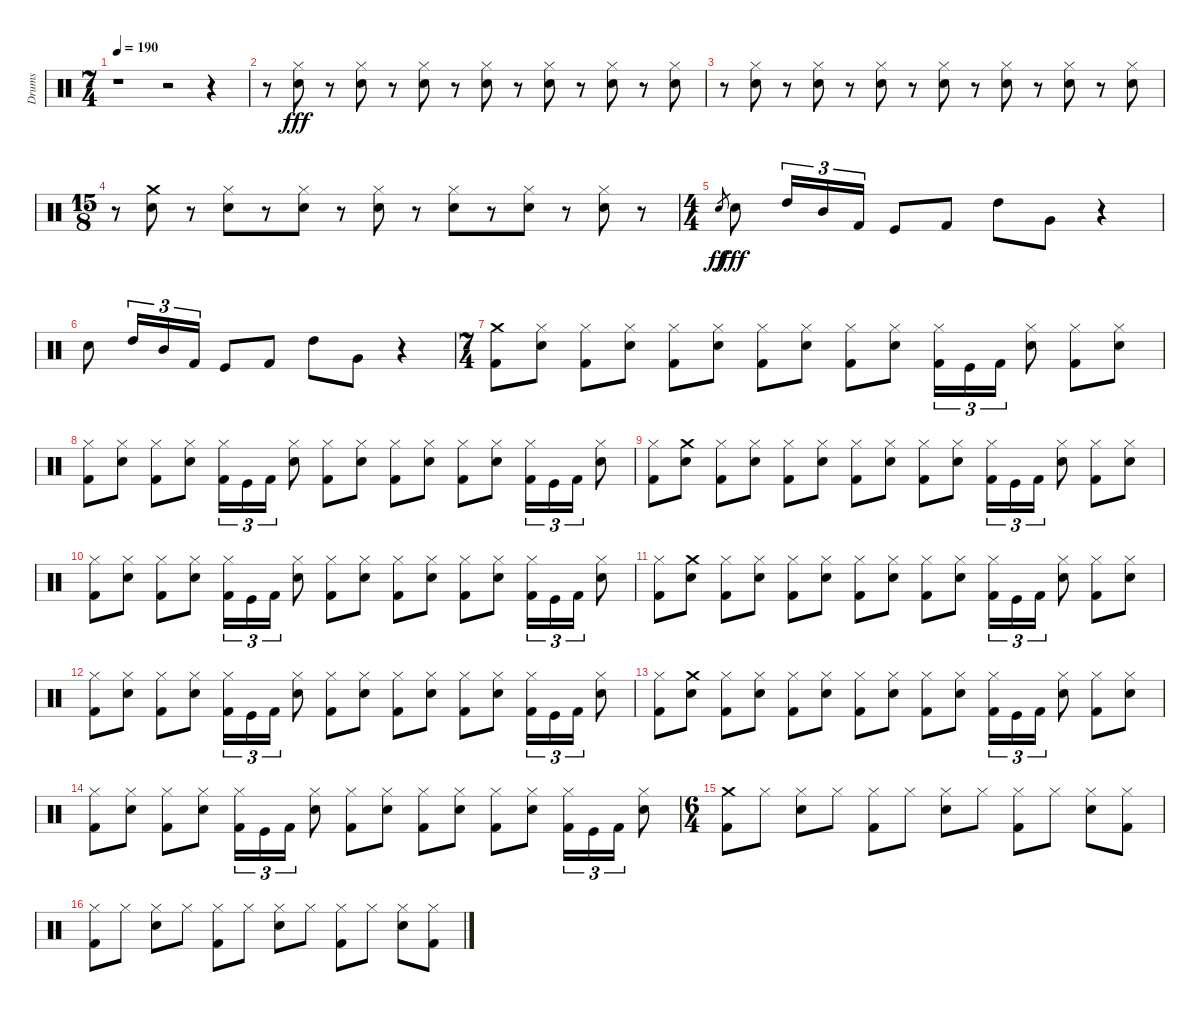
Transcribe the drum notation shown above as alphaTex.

\track ("Drums" "Drums") {instrument percussion}
\staff {score}
\articulation defaults
\ts (7 4)
\tempo 190
\clef neutral
\ks c
r.1{dy f} r.2 r.4 |
r.8 ("Snare (hit) 2" "Hi-Hat (closed)").8{dy fff} r.8 ("Snare (hit) 2" "Hi-Hat (closed)").8 r.8 ("Snare (hit) 2" "Hi-Hat (closed)").8 r.8 ("Snare (hit) 2" "Hi-Hat (closed)").8 r.8 ("Snare (hit) 2" "Hi-Hat (closed)").8 r.8 ("Snare (hit) 2" "Hi-Hat (closed)").8 r.8 ("Snare (hit) 2" "Hi-Hat (closed)").8 |
r.8 ("Snare (hit) 2" "Hi-Hat (closed)").8 r.8 ("Snare (hit) 2" "Hi-Hat (closed)").8 r.8 ("Snare (hit) 2" "Hi-Hat (closed)").8 r.8 ("Snare (hit) 2" "Hi-Hat (closed)").8 r.8 ("Snare (hit) 2" "Hi-Hat (closed)").8 r.8 ("Snare (hit) 2" "Hi-Hat (closed)").8 r.8 ("Snare (hit) 2" "Hi-Hat (closed)").8 |
\ts (15 8)
r.8 ("Crash medium (hit)" "Snare (hit) 2").8 r.8 ("Snare (hit) 2" "Hi-Hat (closed)").8 r.8 ("Snare (hit) 2" "Hi-Hat (closed)").8 r.8 ("Snare (hit) 2" "Hi-Hat (closed)").8 r.8 ("Snare (hit) 2" "Hi-Hat (closed)").8 r.8 ("Snare (hit) 2" "Hi-Hat (closed)").8 r.8 ("Snare (hit) 2" "Hi-Hat (closed)").8 r.8 |
\ts (4 4)
"Snare (hit)".8{gr dy ff} "Snare (hit) 2".8{dy fff} "High Tom (hit)".16{tu (3 2)} "Mid Tom (hit)".16{tu (3 2)} "Kick (hit) 2".16{tu (3 2)} "Kick (hit)".8 "Kick (hit) 2".8 "High Tom (hit)".8 "Very Low Tom (hit)".8 r.4 |
"Snare (hit) 2".8 "High Tom (hit)".16{tu (3 2)} "Mid Tom (hit)".16{tu (3 2)} "Kick (hit) 2".16{tu (3 2)} "Kick (hit)".8 "Kick (hit) 2".8 "High Tom (hit)".8 "Very Low Tom (hit)".8 r.4 |
\ts (7 4)
("Crash medium (hit)" "Kick (hit) 2").8 ("Snare (hit) 2" "Hi-Hat (closed)").8 ("Hi-Hat (closed)" "Kick (hit) 2").8 ("Snare (hit) 2" "Hi-Hat (closed)").8 ("Hi-Hat (closed)" "Kick (hit) 2").8 ("Snare (hit) 2" "Hi-Hat (closed)").8 ("Hi-Hat (closed)" "Kick (hit) 2").8 ("Snare (hit) 2" "Hi-Hat (closed)").8 ("Hi-Hat (closed)" "Kick (hit) 2").8 ("Snare (hit) 2" "Hi-Hat (closed)").8 ("Hi-Hat (closed)" "Kick (hit) 2").16{tu (3 2)} "Kick (hit)".16{tu (3 2)} "Kick (hit) 2".16{tu (3 2)} ("Snare (hit) 2" "Hi-Hat (closed)").8 ("Hi-Hat (closed)" "Kick (hit) 2").8 ("Snare (hit) 2" "Hi-Hat (closed)").8 |
("Hi-Hat (closed)" "Kick (hit) 2").8 ("Snare (hit) 2" "Hi-Hat (closed)").8 ("Hi-Hat (closed)" "Kick (hit) 2").8 ("Snare (hit) 2" "Hi-Hat (closed)").8 ("Hi-Hat (closed)" "Kick (hit) 2").16{tu (3 2)} "Kick (hit)".16{tu (3 2)} "Kick (hit) 2".16{tu (3 2)} ("Snare (hit) 2" "Hi-Hat (closed)").8 ("Hi-Hat (closed)" "Kick (hit) 2").8 ("Snare (hit) 2" "Hi-Hat (closed)").8 ("Hi-Hat (closed)" "Kick (hit) 2").8 ("Snare (hit) 2" "Hi-Hat (closed)").8 ("Kick (hit) 2" "Hi-Hat (closed)").8 ("Snare (hit) 2" "Hi-Hat (closed)").8 ("Kick (hit) 2" "Hi-Hat (closed)").16{tu (3 2)} "Kick (hit)".16{tu (3 2)} "Kick (hit) 2".16{tu (3 2)} ("Snare (hit) 2" "Hi-Hat (closed)").8 |
("Hi-Hat (closed)" "Kick (hit) 2").8 ("Crash medium (hit)" "Snare (hit) 2").8 ("Hi-Hat (closed)" "Kick (hit) 2").8 ("Snare (hit) 2" "Hi-Hat (closed)").8 ("Hi-Hat (closed)" "Kick (hit) 2").8 ("Snare (hit) 2" "Hi-Hat (closed)").8 ("Hi-Hat (closed)" "Kick (hit) 2").8 ("Snare (hit) 2" "Hi-Hat (closed)").8 ("Hi-Hat (closed)" "Kick (hit) 2").8 ("Snare (hit) 2" "Hi-Hat (closed)").8 ("Hi-Hat (closed)" "Kick (hit) 2").16{tu (3 2)} "Kick (hit)".16{tu (3 2)} "Kick (hit) 2".16{tu (3 2)} ("Snare (hit) 2" "Hi-Hat (closed)").8 ("Hi-Hat (closed)" "Kick (hit) 2").8 ("Snare (hit) 2" "Hi-Hat (closed)").8 |
("Hi-Hat (closed)" "Kick (hit) 2").8 ("Snare (hit) 2" "Hi-Hat (closed)").8 ("Hi-Hat (closed)" "Kick (hit) 2").8 ("Snare (hit) 2" "Hi-Hat (closed)").8 ("Hi-Hat (closed)" "Kick (hit) 2").16{tu (3 2)} "Kick (hit)".16{tu (3 2)} "Kick (hit) 2".16{tu (3 2)} ("Snare (hit) 2" "Hi-Hat (closed)").8 ("Hi-Hat (closed)" "Kick (hit) 2").8 ("Snare (hit) 2" "Hi-Hat (closed)").8 ("Hi-Hat (closed)" "Kick (hit) 2").8 ("Snare (hit) 2" "Hi-Hat (closed)").8 ("Kick (hit) 2" "Hi-Hat (closed)").8 ("Snare (hit) 2" "Hi-Hat (closed)").8 ("Kick (hit) 2" "Hi-Hat (closed)").16{tu (3 2)} "Kick (hit)".16{tu (3 2)} "Kick (hit) 2".16{tu (3 2)} ("Snare (hit) 2" "Hi-Hat (closed)").8 |
("Hi-Hat (closed)" "Kick (hit) 2").8 ("Crash medium (hit)" "Snare (hit) 2").8 ("Hi-Hat (closed)" "Kick (hit) 2").8 ("Snare (hit) 2" "Hi-Hat (closed)").8 ("Hi-Hat (closed)" "Kick (hit) 2").8 ("Snare (hit) 2" "Hi-Hat (closed)").8 ("Hi-Hat (closed)" "Kick (hit) 2").8 ("Snare (hit) 2" "Hi-Hat (closed)").8 ("Hi-Hat (closed)" "Kick (hit) 2").8 ("Snare (hit) 2" "Hi-Hat (closed)").8 ("Hi-Hat (closed)" "Kick (hit) 2").16{tu (3 2)} "Kick (hit)".16{tu (3 2)} "Kick (hit) 2".16{tu (3 2)} ("Snare (hit) 2" "Hi-Hat (closed)").8 ("Hi-Hat (closed)" "Kick (hit) 2").8 ("Snare (hit) 2" "Hi-Hat (closed)").8 |
("Hi-Hat (closed)" "Kick (hit) 2").8 ("Snare (hit) 2" "Hi-Hat (closed)").8 ("Hi-Hat (closed)" "Kick (hit) 2").8 ("Snare (hit) 2" "Hi-Hat (closed)").8 ("Hi-Hat (closed)" "Kick (hit) 2").16{tu (3 2)} "Kick (hit)".16{tu (3 2)} "Kick (hit) 2".16{tu (3 2)} ("Snare (hit) 2" "Hi-Hat (closed)").8 ("Hi-Hat (closed)" "Kick (hit) 2").8 ("Snare (hit) 2" "Hi-Hat (closed)").8 ("Hi-Hat (closed)" "Kick (hit) 2").8 ("Snare (hit) 2" "Hi-Hat (closed)").8 ("Kick (hit) 2" "Hi-Hat (closed)").8 ("Snare (hit) 2" "Hi-Hat (closed)").8 ("Kick (hit) 2" "Hi-Hat (closed)").16{tu (3 2)} "Kick (hit)".16{tu (3 2)} "Kick (hit) 2".16{tu (3 2)} ("Snare (hit) 2" "Hi-Hat (closed)").8 |
("Hi-Hat (closed)" "Kick (hit) 2").8 ("Crash medium (hit)" "Snare (hit) 2").8 ("Hi-Hat (closed)" "Kick (hit) 2").8 ("Snare (hit) 2" "Hi-Hat (closed)").8 ("Hi-Hat (closed)" "Kick (hit) 2").8 ("Snare (hit) 2" "Hi-Hat (closed)").8 ("Hi-Hat (closed)" "Kick (hit) 2").8 ("Snare (hit) 2" "Hi-Hat (closed)").8 ("Hi-Hat (closed)" "Kick (hit) 2").8 ("Snare (hit) 2" "Hi-Hat (closed)").8 ("Hi-Hat (closed)" "Kick (hit) 2").16{tu (3 2)} "Kick (hit)".16{tu (3 2)} "Kick (hit) 2".16{tu (3 2)} ("Snare (hit) 2" "Hi-Hat (closed)").8 ("Hi-Hat (closed)" "Kick (hit) 2").8 ("Snare (hit) 2" "Hi-Hat (closed)").8 |
("Hi-Hat (closed)" "Kick (hit) 2").8 ("Snare (hit) 2" "Hi-Hat (closed)").8 ("Hi-Hat (closed)" "Kick (hit) 2").8 ("Snare (hit) 2" "Hi-Hat (closed)").8 ("Hi-Hat (closed)" "Kick (hit) 2").16{tu (3 2)} "Kick (hit)".16{tu (3 2)} "Kick (hit) 2".16{tu (3 2)} ("Snare (hit) 2" "Hi-Hat (closed)").8 ("Hi-Hat (closed)" "Kick (hit) 2").8 ("Snare (hit) 2" "Hi-Hat (closed)").8 ("Hi-Hat (closed)" "Kick (hit) 2").8 ("Snare (hit) 2" "Hi-Hat (closed)").8 ("Kick (hit) 2" "Hi-Hat (closed)").8 ("Snare (hit) 2" "Hi-Hat (closed)").8 ("Kick (hit) 2" "Hi-Hat (closed)").16{tu (3 2)} "Kick (hit)".16{tu (3 2)} "Kick (hit) 2".16{tu (3 2)} ("Snare (hit) 2" "Hi-Hat (closed)").8 |
\ts (6 4)
("Kick (hit) 2" "Crash medium (hit)").8 "Hi-Hat (closed)".8 ("Snare (hit) 2" "Hi-Hat (closed)").8 "Hi-Hat (closed)".8 ("Kick (hit) 2" "Hi-Hat (closed)").8 "Hi-Hat (closed)".8 ("Snare (hit) 2" "Hi-Hat (closed)").8 "Hi-Hat (closed)".8 ("Kick (hit) 2" "Hi-Hat (closed)").8 "Hi-Hat (closed)".8 ("Snare (hit) 2" "Hi-Hat (closed)").8 ("Kick (hit) 2" "Hi-Hat (closed)").8 |
("Hi-Hat (closed)" "Kick (hit) 2").8 "Hi-Hat (closed)".8 ("Snare (hit) 2" "Hi-Hat (closed)").8 "Hi-Hat (closed)".8 ("Kick (hit) 2" "Hi-Hat (closed)").8 "Hi-Hat (closed)".8 ("Snare (hit) 2" "Hi-Hat (closed)").8 "Hi-Hat (closed)".8 ("Kick (hit) 2" "Hi-Hat (closed)").8 "Hi-Hat (closed)".8 ("Snare (hit) 2" "Hi-Hat (closed)").8 ("Kick (hit) 2" "Hi-Hat (closed)").8
